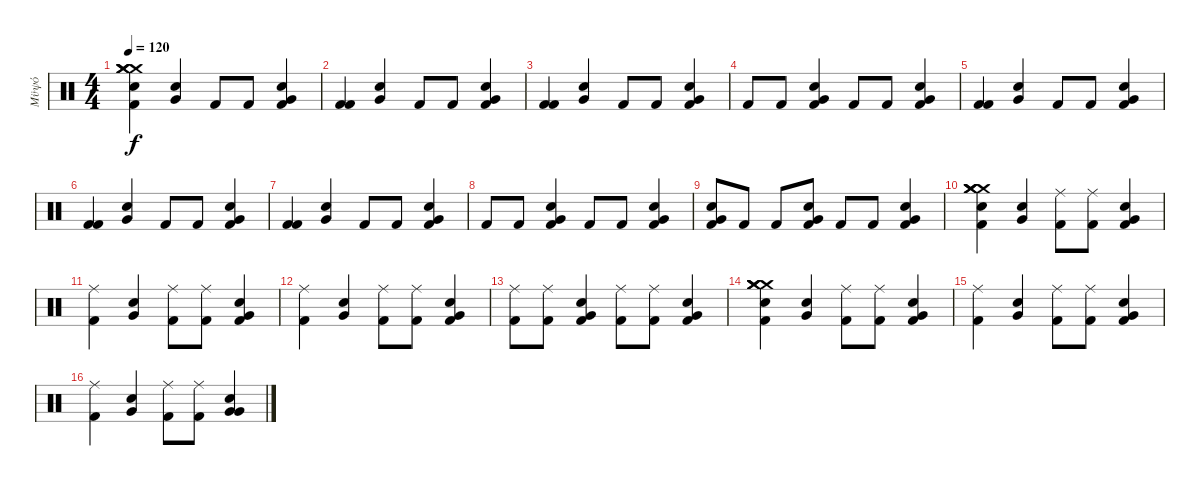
\track ("Μϋψό" "Μϋψό") {instrument percussion}
\staff {score}
\articulation defaults
\ts (4 4)
\tempo 120
\clef neutral
\ks c
("Kick (hit) 2" "Electric Snare (hit)" "Crash medium (hit)" "Crash medium (hit)" "Crash medium (hit)" "Crash medium (hit)").4{dy f} ("Electric Snare (hit)" "Very Low Tom (hit)").4 "Kick (hit) 2".8 "Kick (hit) 2".8 ("Electric Snare (hit)" "Kick (hit) 2" "Very Low Tom (hit)").4 |
("Kick (hit) 2" "Kick (hit) 2").4 ("Electric Snare (hit)" "Very Low Tom (hit)").4 "Kick (hit) 2".8 "Kick (hit) 2".8 ("Electric Snare (hit)" "Kick (hit) 2" "Very Low Tom (hit)").4 |
("Kick (hit) 2" "Kick (hit) 2").4 ("Electric Snare (hit)" "Very Low Tom (hit)").4 "Kick (hit) 2".8 "Kick (hit) 2".8 ("Electric Snare (hit)" "Kick (hit) 2" "Very Low Tom (hit)").4 |
"Kick (hit) 2".8 "Kick (hit) 2".8 ("Electric Snare (hit)" "Kick (hit) 2" "Very Low Tom (hit)").4 "Kick (hit) 2".8 "Kick (hit) 2".8 ("Electric Snare (hit)" "Kick (hit) 2" "Very Low Tom (hit)").4 |
("Kick (hit) 2" "Kick (hit) 2").4 ("Electric Snare (hit)" "Very Low Tom (hit)").4 "Kick (hit) 2".8 "Kick (hit) 2".8 ("Electric Snare (hit)" "Kick (hit) 2" "Very Low Tom (hit)").4 |
("Kick (hit) 2" "Kick (hit) 2").4 ("Electric Snare (hit)" "Very Low Tom (hit)").4 "Kick (hit) 2".8 "Kick (hit) 2".8 ("Electric Snare (hit)" "Kick (hit) 2" "Very Low Tom (hit)").4 |
("Kick (hit) 2" "Kick (hit) 2").4 ("Electric Snare (hit)" "Very Low Tom (hit)").4 "Kick (hit) 2".8 "Kick (hit) 2".8 ("Electric Snare (hit)" "Kick (hit) 2" "Very Low Tom (hit)").4 |
"Kick (hit) 2".8 "Kick (hit) 2".8 ("Electric Snare (hit)" "Kick (hit) 2" "Very Low Tom (hit)").4 "Kick (hit) 2".8 "Kick (hit) 2".8 ("Electric Snare (hit)" "Kick (hit) 2" "Very Low Tom (hit)").4 |
("Kick (hit) 2" "Electric Snare (hit)" "Very Low Tom (hit)").8 "Kick (hit) 2".8 "Kick (hit) 2".8 ("Kick (hit) 2" "Electric Snare (hit)" "Very Low Tom (hit)").8 "Kick (hit) 2".8 "Kick (hit) 2".8 ("Kick (hit) 2" "Electric Snare (hit)" "Very Low Tom (hit)").4 |
("Kick (hit) 2" "Electric Snare (hit)" "Crash medium (hit)" "Crash medium (hit)" "Crash medium (hit)" "Crash medium (hit)").4 ("Electric Snare (hit)" "Very Low Tom (hit)").4 ("Kick (hit) 2" "Ride (middle)").8 ("Kick (hit) 2" "Ride (middle)").8 ("Electric Snare (hit)" "Kick (hit) 2" "Very Low Tom (hit)").4 |
("Kick (hit) 2" "Ride (middle)").4 ("Electric Snare (hit)" "Very Low Tom (hit)").4 ("Kick (hit) 2" "Ride (middle)").8 ("Kick (hit) 2" "Ride (middle)").8 ("Electric Snare (hit)" "Kick (hit) 2" "Very Low Tom (hit)").4 |
("Kick (hit) 2" "Ride (middle)").4 ("Electric Snare (hit)" "Very Low Tom (hit)").4 ("Kick (hit) 2" "Ride (middle)").8 ("Kick (hit) 2" "Ride (middle)").8 ("Electric Snare (hit)" "Kick (hit) 2" "Very Low Tom (hit)").4 |
("Kick (hit) 2" "Ride (middle)").8 ("Kick (hit) 2" "Ride (middle)").8 ("Electric Snare (hit)" "Kick (hit) 2" "Very Low Tom (hit)").4 ("Kick (hit) 2" "Ride (middle)").8 ("Kick (hit) 2" "Ride (middle)").8 ("Electric Snare (hit)" "Kick (hit) 2" "Very Low Tom (hit)").4 |
("Kick (hit) 2" "Electric Snare (hit)" "Crash medium (hit)" "Crash medium (hit)" "Crash medium (hit)" "Crash medium (hit)").4 ("Electric Snare (hit)" "Very Low Tom (hit)").4 ("Kick (hit) 2" "Ride (middle)").8 ("Kick (hit) 2" "Ride (middle)").8 ("Electric Snare (hit)" "Kick (hit) 2" "Very Low Tom (hit)").4 |
("Kick (hit) 2" "Ride (middle)").4 ("Electric Snare (hit)" "Very Low Tom (hit)").4 ("Kick (hit) 2" "Ride (middle)").8 ("Kick (hit) 2" "Ride (middle)").8 ("Electric Snare (hit)" "Kick (hit) 2" "Very Low Tom (hit)").4 |
("Kick (hit) 2" "Ride (middle)").4 ("Electric Snare (hit)" "Very Low Tom (hit)").4 ("Kick (hit) 2" "Ride (middle)").8 ("Kick (hit) 2" "Ride (middle)").8 ("Electric Snare (hit)" "Very Low Tom (hit)" "Very Low Tom (hit)").4
